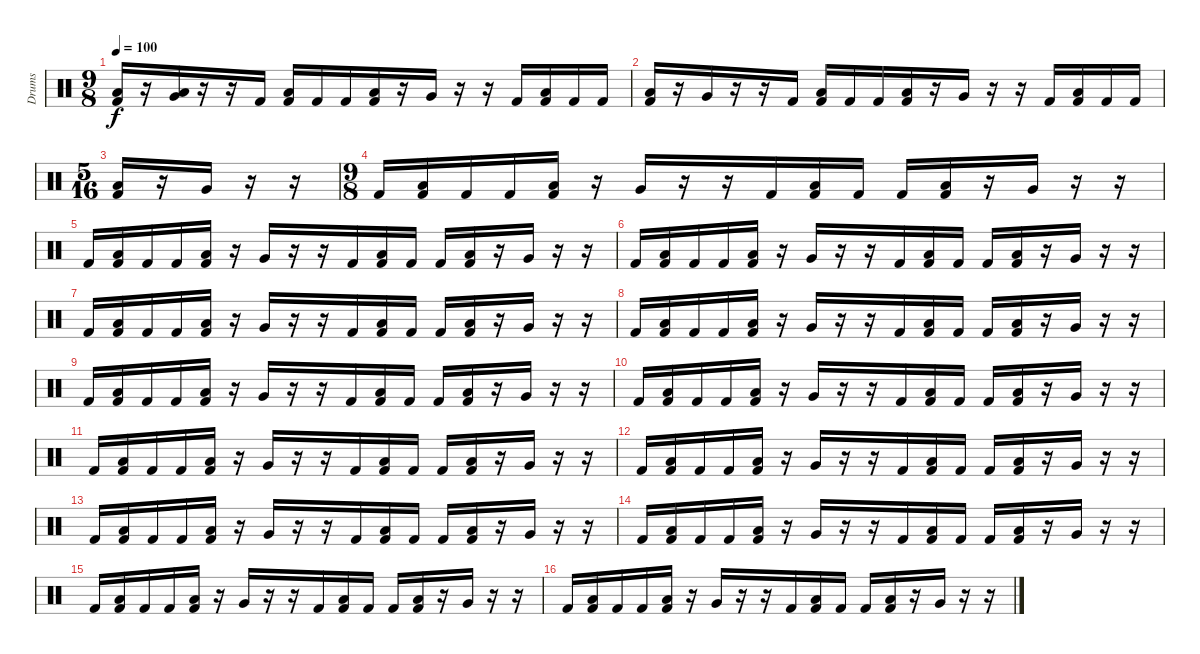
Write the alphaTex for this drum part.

\track ("Drums" "Drums") {instrument percussion}
\staff {score}
\articulation defaults
\ts (9 8)
\tempo 100
\clef neutral
\ks c
("Low Floor Tom (hit)" "Kick (hit) 2").16{dy f} r.16 ("Low Floor Tom (hit)" "Very Low Tom (hit)").16 r.16 r.16 "Kick (hit) 2".16 ("Low Floor Tom (hit)" "Kick (hit) 2").16 "Kick (hit) 2".16 "Kick (hit) 2".16 ("Low Floor Tom (hit)" "Kick (hit) 2").16 r.16 "Very Low Tom (hit)".16 r.16 r.16 "Kick (hit) 2".16 ("Low Floor Tom (hit)" "Kick (hit) 2").16 "Kick (hit) 2".16 "Kick (hit) 2".16 |
("Low Floor Tom (hit)" "Kick (hit) 2").16 r.16 "Very Low Tom (hit)".16 r.16 r.16 "Kick (hit) 2".16 ("Low Floor Tom (hit)" "Kick (hit) 2").16 "Kick (hit) 2".16 "Kick (hit) 2".16 ("Low Floor Tom (hit)" "Kick (hit) 2").16 r.16 "Very Low Tom (hit)".16 r.16 r.16 "Kick (hit) 2".16 ("Low Floor Tom (hit)" "Kick (hit) 2").16 "Kick (hit) 2".16 "Kick (hit) 2".16 |
\ts (5 16)
("Low Floor Tom (hit)" "Kick (hit) 2").16 r.16 "Very Low Tom (hit)".16 r.16 r.16 |
\ts (9 8)
"Kick (hit) 2".16 ("Low Floor Tom (hit)" "Kick (hit) 2").16 "Kick (hit) 2".16 "Kick (hit) 2".16 ("Low Floor Tom (hit)" "Kick (hit) 2").16 r.16 "Very Low Tom (hit)".16 r.16 r.16 "Kick (hit) 2".16 ("Low Floor Tom (hit)" "Kick (hit) 2").16 "Kick (hit) 2".16 "Kick (hit) 2".16 ("Low Floor Tom (hit)" "Kick (hit) 2").16 r.16 "Very Low Tom (hit)".16 r.16 r.16 |
"Kick (hit) 2".16 ("Low Floor Tom (hit)" "Kick (hit) 2").16 "Kick (hit) 2".16 "Kick (hit) 2".16 ("Low Floor Tom (hit)" "Kick (hit) 2").16 r.16 "Very Low Tom (hit)".16 r.16 r.16 "Kick (hit) 2".16 ("Low Floor Tom (hit)" "Kick (hit) 2").16 "Kick (hit) 2".16 "Kick (hit) 2".16 ("Low Floor Tom (hit)" "Kick (hit) 2").16 r.16 "Very Low Tom (hit)".16 r.16 r.16 |
"Kick (hit) 2".16 ("Low Floor Tom (hit)" "Kick (hit) 2").16 "Kick (hit) 2".16 "Kick (hit) 2".16 ("Low Floor Tom (hit)" "Kick (hit) 2").16 r.16 "Very Low Tom (hit)".16 r.16 r.16 "Kick (hit) 2".16 ("Low Floor Tom (hit)" "Kick (hit) 2").16 "Kick (hit) 2".16 "Kick (hit) 2".16 ("Low Floor Tom (hit)" "Kick (hit) 2").16 r.16 "Very Low Tom (hit)".16 r.16 r.16 |
"Kick (hit) 2".16 ("Low Floor Tom (hit)" "Kick (hit) 2").16 "Kick (hit) 2".16 "Kick (hit) 2".16 ("Low Floor Tom (hit)" "Kick (hit) 2").16 r.16 "Very Low Tom (hit)".16 r.16 r.16 "Kick (hit) 2".16 ("Low Floor Tom (hit)" "Kick (hit) 2").16 "Kick (hit) 2".16 "Kick (hit) 2".16 ("Low Floor Tom (hit)" "Kick (hit) 2").16 r.16 "Very Low Tom (hit)".16 r.16 r.16 |
"Kick (hit) 2".16 ("Low Floor Tom (hit)" "Kick (hit) 2").16 "Kick (hit) 2".16 "Kick (hit) 2".16 ("Low Floor Tom (hit)" "Kick (hit) 2").16 r.16 "Very Low Tom (hit)".16 r.16 r.16 "Kick (hit) 2".16 ("Low Floor Tom (hit)" "Kick (hit) 2").16 "Kick (hit) 2".16 "Kick (hit) 2".16 ("Low Floor Tom (hit)" "Kick (hit) 2").16 r.16 "Very Low Tom (hit)".16 r.16 r.16 |
"Kick (hit) 2".16 ("Low Floor Tom (hit)" "Kick (hit) 2").16 "Kick (hit) 2".16 "Kick (hit) 2".16 ("Low Floor Tom (hit)" "Kick (hit) 2").16 r.16 "Very Low Tom (hit)".16 r.16 r.16 "Kick (hit) 2".16 ("Low Floor Tom (hit)" "Kick (hit) 2").16 "Kick (hit) 2".16 "Kick (hit) 2".16 ("Low Floor Tom (hit)" "Kick (hit) 2").16 r.16 "Very Low Tom (hit)".16 r.16 r.16 |
"Kick (hit) 2".16 ("Low Floor Tom (hit)" "Kick (hit) 2").16 "Kick (hit) 2".16 "Kick (hit) 2".16 ("Low Floor Tom (hit)" "Kick (hit) 2").16 r.16 "Very Low Tom (hit)".16 r.16 r.16 "Kick (hit) 2".16 ("Low Floor Tom (hit)" "Kick (hit) 2").16 "Kick (hit) 2".16 "Kick (hit) 2".16 ("Low Floor Tom (hit)" "Kick (hit) 2").16 r.16 "Very Low Tom (hit)".16 r.16 r.16 |
"Kick (hit) 2".16 ("Low Floor Tom (hit)" "Kick (hit) 2").16 "Kick (hit) 2".16 "Kick (hit) 2".16 ("Low Floor Tom (hit)" "Kick (hit) 2").16 r.16 "Very Low Tom (hit)".16 r.16 r.16 "Kick (hit) 2".16 ("Low Floor Tom (hit)" "Kick (hit) 2").16 "Kick (hit) 2".16 "Kick (hit) 2".16 ("Low Floor Tom (hit)" "Kick (hit) 2").16 r.16 "Very Low Tom (hit)".16 r.16 r.16 |
"Kick (hit) 2".16 ("Low Floor Tom (hit)" "Kick (hit) 2").16 "Kick (hit) 2".16 "Kick (hit) 2".16 ("Low Floor Tom (hit)" "Kick (hit) 2").16 r.16 "Very Low Tom (hit)".16 r.16 r.16 "Kick (hit) 2".16 ("Low Floor Tom (hit)" "Kick (hit) 2").16 "Kick (hit) 2".16 "Kick (hit) 2".16 ("Low Floor Tom (hit)" "Kick (hit) 2").16 r.16 "Very Low Tom (hit)".16 r.16 r.16 |
"Kick (hit) 2".16 ("Low Floor Tom (hit)" "Kick (hit) 2").16 "Kick (hit) 2".16 "Kick (hit) 2".16 ("Low Floor Tom (hit)" "Kick (hit) 2").16 r.16 "Very Low Tom (hit)".16 r.16 r.16 "Kick (hit) 2".16 ("Low Floor Tom (hit)" "Kick (hit) 2").16 "Kick (hit) 2".16 "Kick (hit) 2".16 ("Low Floor Tom (hit)" "Kick (hit) 2").16 r.16 "Very Low Tom (hit)".16 r.16 r.16 |
"Kick (hit) 2".16 ("Low Floor Tom (hit)" "Kick (hit) 2").16 "Kick (hit) 2".16 "Kick (hit) 2".16 ("Low Floor Tom (hit)" "Kick (hit) 2").16 r.16 "Very Low Tom (hit)".16 r.16 r.16 "Kick (hit) 2".16 ("Low Floor Tom (hit)" "Kick (hit) 2").16 "Kick (hit) 2".16 "Kick (hit) 2".16 ("Low Floor Tom (hit)" "Kick (hit) 2").16 r.16 "Very Low Tom (hit)".16 r.16 r.16 |
"Kick (hit) 2".16 ("Low Floor Tom (hit)" "Kick (hit) 2").16 "Kick (hit) 2".16 "Kick (hit) 2".16 ("Low Floor Tom (hit)" "Kick (hit) 2").16 r.16 "Very Low Tom (hit)".16 r.16 r.16 "Kick (hit) 2".16 ("Low Floor Tom (hit)" "Kick (hit) 2").16 "Kick (hit) 2".16 "Kick (hit) 2".16 ("Low Floor Tom (hit)" "Kick (hit) 2").16 r.16 "Very Low Tom (hit)".16 r.16 r.16 |
"Kick (hit) 2".16 ("Low Floor Tom (hit)" "Kick (hit) 2").16 "Kick (hit) 2".16 "Kick (hit) 2".16 ("Low Floor Tom (hit)" "Kick (hit) 2").16 r.16 "Very Low Tom (hit)".16 r.16 r.16 "Kick (hit) 2".16 ("Low Floor Tom (hit)" "Kick (hit) 2").16 "Kick (hit) 2".16 "Kick (hit) 2".16 ("Low Floor Tom (hit)" "Kick (hit) 2").16 r.16 "Very Low Tom (hit)".16 r.16 r.16
